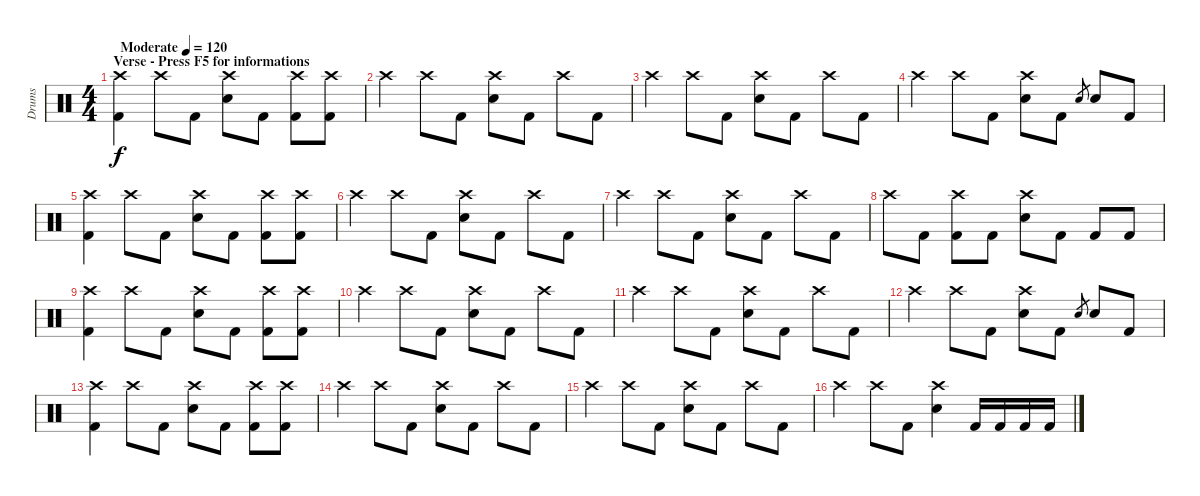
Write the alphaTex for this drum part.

\track ("Drums" "Drums") {instrument percussion}
\staff {score}
\articulation defaults
\ts (4 4)
\section ("" "Verse - Press F5 for informations")
\tempo (120 "Moderate")
\clef neutral
\ks c
("Crash high (hit)" "Kick (hit) 2").4{dy f} "Crash high (hit)".8 "Kick (hit) 2".8 ("Crash high (hit)" "Electric Snare (hit)").8 "Kick (hit) 2".8 ("Crash high (hit)" "Kick (hit) 2").8 ("Crash high (hit)" "Kick (hit) 2").8 |
"Crash high (hit)".4 "Crash high (hit)".8 "Kick (hit) 2".8 ("Crash high (hit)" "Electric Snare (hit)").8 "Kick (hit) 2".8 "Crash high (hit)".8 "Kick (hit) 2".8 |
"Crash high (hit)".4 "Crash high (hit)".8 "Kick (hit) 2".8 ("Crash high (hit)" "Electric Snare (hit)").8 "Kick (hit) 2".8 "Crash high (hit)".8 "Kick (hit) 2".8 |
"Crash high (hit)".4 "Crash high (hit)".8 "Kick (hit) 2".8 ("Crash high (hit)" "Electric Snare (hit)").8 "Kick (hit) 2".8 "Electric Snare (hit)".8{gr} "Electric Snare (hit)".8 "Kick (hit) 2".8 |
("Crash high (hit)" "Kick (hit) 2").4 "Crash high (hit)".8 "Kick (hit) 2".8 ("Crash high (hit)" "Electric Snare (hit)").8 "Kick (hit) 2".8 ("Crash high (hit)" "Kick (hit) 2").8 ("Crash high (hit)" "Kick (hit) 2").8 |
"Crash high (hit)".4 "Crash high (hit)".8 "Kick (hit) 2".8 ("Crash high (hit)" "Electric Snare (hit)").8 "Kick (hit) 2".8 "Crash high (hit)".8 "Kick (hit) 2".8 |
"Crash high (hit)".4 "Crash high (hit)".8 "Kick (hit) 2".8 ("Crash high (hit)" "Electric Snare (hit)").8 "Kick (hit) 2".8 "Crash high (hit)".8 "Kick (hit) 2".8 |
"Crash high (hit)".8 "Kick (hit) 2".8 ("Crash high (hit)" "Kick (hit) 2").8 "Kick (hit) 2".8 ("Crash high (hit)" "Electric Snare (hit)").8 "Kick (hit) 2".8 "Kick (hit) 2".8 "Kick (hit) 2".8 |
("Crash high (hit)" "Kick (hit) 2").4 "Crash high (hit)".8 "Kick (hit) 2".8 ("Crash high (hit)" "Electric Snare (hit)").8 "Kick (hit) 2".8 ("Crash high (hit)" "Kick (hit) 2").8 ("Crash high (hit)" "Kick (hit) 2").8 |
"Crash high (hit)".4 "Crash high (hit)".8 "Kick (hit) 2".8 ("Crash high (hit)" "Electric Snare (hit)").8 "Kick (hit) 2".8 "Crash high (hit)".8 "Kick (hit) 2".8 |
"Crash high (hit)".4 "Crash high (hit)".8 "Kick (hit) 2".8 ("Crash high (hit)" "Electric Snare (hit)").8 "Kick (hit) 2".8 "Crash high (hit)".8 "Kick (hit) 2".8 |
"Crash high (hit)".4 "Crash high (hit)".8 "Kick (hit) 2".8 ("Crash high (hit)" "Electric Snare (hit)").8 "Kick (hit) 2".8 "Electric Snare (hit)".8{gr} "Electric Snare (hit)".8 "Kick (hit) 2".8 |
("Crash high (hit)" "Kick (hit) 2").4 "Crash high (hit)".8 "Kick (hit) 2".8 ("Crash high (hit)" "Electric Snare (hit)").8 "Kick (hit) 2".8 ("Crash high (hit)" "Kick (hit) 2").8 ("Crash high (hit)" "Kick (hit) 2").8 |
"Crash high (hit)".4 "Crash high (hit)".8 "Kick (hit) 2".8 ("Crash high (hit)" "Electric Snare (hit)").8 "Kick (hit) 2".8 "Crash high (hit)".8 "Kick (hit) 2".8 |
"Crash high (hit)".4 "Crash high (hit)".8 "Kick (hit) 2".8 ("Crash high (hit)" "Electric Snare (hit)").8 "Kick (hit) 2".8 "Crash high (hit)".8 "Kick (hit) 2".8 |
"Crash high (hit)".4 "Crash high (hit)".8 "Kick (hit) 2".8 ("Crash high (hit)" "Electric Snare (hit)").4 "Kick (hit) 2".16 "Kick (hit) 2".16 "Kick (hit) 2".16 "Kick (hit) 2".16
